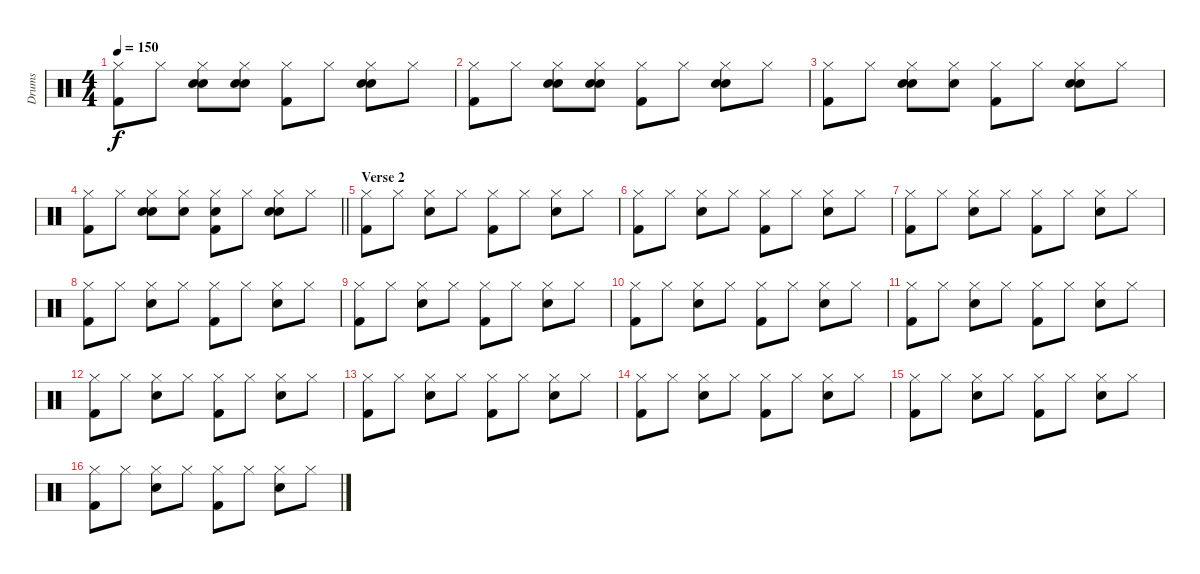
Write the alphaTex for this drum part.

\track ("Drums" "Drums") {instrument percussion}
\staff {score}
\articulation defaults
\ts (4 4)
\tempo 150
\clef neutral
\ks c
("Hi-Hat (closed)" "Kick (hit) 2").8{dy f} "Hi-Hat (closed)".8 ("Hi-Hat (closed)" "Hand Clap (hit)" "Snare (hit) 2").8 ("Hi-Hat (closed)" "Hand Clap (hit)" "Snare (hit) 2").8 ("Hi-Hat (closed)" "Kick (hit) 2").8 "Hi-Hat (closed)".8 ("Hi-Hat (closed)" "Hand Clap (hit)" "Snare (hit) 2").8 "Hi-Hat (closed)".8 |
("Hi-Hat (closed)" "Kick (hit) 2").8 "Hi-Hat (closed)".8 ("Hi-Hat (closed)" "Hand Clap (hit)" "Snare (hit) 2").8 ("Hi-Hat (closed)" "Hand Clap (hit)" "Snare (hit) 2").8 ("Hi-Hat (closed)" "Kick (hit) 2").8 "Hi-Hat (closed)".8 ("Hi-Hat (closed)" "Hand Clap (hit)" "Snare (hit) 2").8 "Hi-Hat (closed)".8 |
("Hi-Hat (closed)" "Kick (hit) 2").8 "Hi-Hat (closed)".8 ("Hi-Hat (closed)" "Hand Clap (hit)" "Snare (hit) 2").8 ("Hi-Hat (closed)" "Hand Clap (hit)").8 ("Hi-Hat (closed)" "Kick (hit) 2").8 "Hi-Hat (closed)".8 ("Hi-Hat (closed)" "Hand Clap (hit)" "Snare (hit) 2").8 "Hi-Hat (closed)".8 |
\barLineRight lightlight
("Hi-Hat (closed)" "Kick (hit) 2").8 "Hi-Hat (closed)".8 ("Hi-Hat (closed)" "Hand Clap (hit)" "Snare (hit) 2").8 ("Hi-Hat (closed)" "Hand Clap (hit)").8 ("Hi-Hat (closed)" "Snare (hit) 2" "Kick (hit) 2").8 "Hi-Hat (closed)".8 ("Hi-Hat (closed)" "Hand Clap (hit)" "Snare (hit) 2").8 "Hi-Hat (closed)".8 |
\section ("" "Verse 2")
("Hi-Hat (closed)" "Kick (hit) 2").8 "Hi-Hat (closed)".8 ("Hi-Hat (closed)" "Snare (hit) 2").8 "Hi-Hat (closed)".8 ("Hi-Hat (closed)" "Kick (hit) 2").8 "Hi-Hat (closed)".8 ("Hi-Hat (closed)" "Snare (hit) 2").8 "Hi-Hat (closed)".8 |
("Hi-Hat (closed)" "Kick (hit) 2").8 "Hi-Hat (closed)".8 ("Hi-Hat (closed)" "Snare (hit) 2").8 "Hi-Hat (closed)".8 ("Hi-Hat (closed)" "Kick (hit) 2").8 "Hi-Hat (closed)".8 ("Hi-Hat (closed)" "Snare (hit) 2").8 "Hi-Hat (closed)".8 |
("Hi-Hat (closed)" "Kick (hit) 2").8 "Hi-Hat (closed)".8 ("Hi-Hat (closed)" "Snare (hit) 2").8 "Hi-Hat (closed)".8 ("Hi-Hat (closed)" "Kick (hit) 2").8 "Hi-Hat (closed)".8 ("Hi-Hat (closed)" "Snare (hit) 2").8 "Hi-Hat (closed)".8 |
("Hi-Hat (closed)" "Kick (hit) 2").8 "Hi-Hat (closed)".8 ("Hi-Hat (closed)" "Snare (hit) 2").8 "Hi-Hat (closed)".8 ("Hi-Hat (closed)" "Kick (hit) 2").8 "Hi-Hat (closed)".8 ("Hi-Hat (closed)" "Snare (hit) 2").8 "Hi-Hat (closed)".8 |
("Hi-Hat (closed)" "Kick (hit) 2").8 "Hi-Hat (closed)".8 ("Hi-Hat (closed)" "Snare (hit) 2").8 "Hi-Hat (closed)".8 ("Hi-Hat (closed)" "Kick (hit) 2").8 "Hi-Hat (closed)".8 ("Hi-Hat (closed)" "Snare (hit) 2").8 "Hi-Hat (closed)".8 |
("Hi-Hat (closed)" "Kick (hit) 2").8 "Hi-Hat (closed)".8 ("Hi-Hat (closed)" "Snare (hit) 2").8 "Hi-Hat (closed)".8 ("Hi-Hat (closed)" "Kick (hit) 2").8 "Hi-Hat (closed)".8 ("Hi-Hat (closed)" "Snare (hit) 2").8 "Hi-Hat (closed)".8 |
("Hi-Hat (closed)" "Kick (hit) 2").8 "Hi-Hat (closed)".8 ("Hi-Hat (closed)" "Snare (hit) 2").8 "Hi-Hat (closed)".8 ("Hi-Hat (closed)" "Kick (hit) 2").8 "Hi-Hat (closed)".8 ("Hi-Hat (closed)" "Snare (hit) 2").8 "Hi-Hat (closed)".8 |
("Hi-Hat (closed)" "Kick (hit) 2").8 "Hi-Hat (closed)".8 ("Hi-Hat (closed)" "Snare (hit) 2").8 "Hi-Hat (closed)".8 ("Hi-Hat (closed)" "Kick (hit) 2").8 "Hi-Hat (closed)".8 ("Hi-Hat (closed)" "Snare (hit) 2").8 "Hi-Hat (closed)".8 |
("Hi-Hat (closed)" "Kick (hit) 2").8 "Hi-Hat (closed)".8 ("Hi-Hat (closed)" "Snare (hit) 2").8 "Hi-Hat (closed)".8 ("Hi-Hat (closed)" "Kick (hit) 2").8 "Hi-Hat (closed)".8 ("Hi-Hat (closed)" "Snare (hit) 2").8 "Hi-Hat (closed)".8 |
("Hi-Hat (closed)" "Kick (hit) 2").8 "Hi-Hat (closed)".8 ("Hi-Hat (closed)" "Snare (hit) 2").8 "Hi-Hat (closed)".8 ("Hi-Hat (closed)" "Kick (hit) 2").8 "Hi-Hat (closed)".8 ("Hi-Hat (closed)" "Snare (hit) 2").8 "Hi-Hat (closed)".8 |
("Hi-Hat (closed)" "Kick (hit) 2").8 "Hi-Hat (closed)".8 ("Hi-Hat (closed)" "Snare (hit) 2").8 "Hi-Hat (closed)".8 ("Hi-Hat (closed)" "Kick (hit) 2").8 "Hi-Hat (closed)".8 ("Hi-Hat (closed)" "Snare (hit) 2").8 "Hi-Hat (closed)".8 |
("Hi-Hat (closed)" "Kick (hit) 2").8 "Hi-Hat (closed)".8 ("Hi-Hat (closed)" "Snare (hit) 2").8 "Hi-Hat (closed)".8 ("Hi-Hat (closed)" "Kick (hit) 2").8 "Hi-Hat (closed)".8 ("Hi-Hat (closed)" "Snare (hit) 2").8 "Hi-Hat (closed)".8
